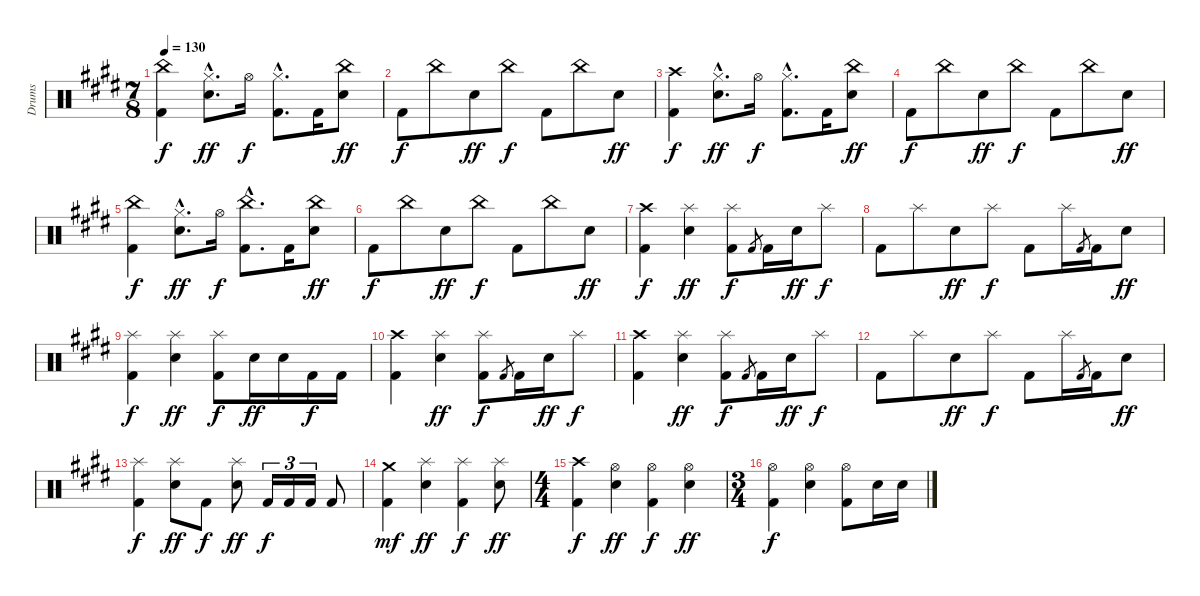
\track ("Drums" "Drums") {instrument percussion}
\staff {score}
\articulation defaults
\ts (7 8)
\tempo 130
\clef neutral
\ks e
("Kick (hit) 2" "China (hit)").4{dy f} ("Electric Snare (hit)"{hac} "Hi-Hat (closed)"{hac}).8{d dy ff} "Hi-Hat (open)".16{dy f} ("Kick (hit) 2"{hac} "Hi-Hat (closed)").8{d} "Kick (hit) 2".16 ("Electric Snare (hit)" "China (hit)").8{dy ff} |
"Kick (hit) 2".8{dy f} "China (hit)".8 "Electric Snare (hit)".8{dy ff} "China (hit)".8{dy f} "Kick (hit) 2".8 "China (hit)".8 "Electric Snare (hit)".8{dy ff} |
("Kick (hit) 2" "Crash high (hit)").4{dy f} ("Electric Snare (hit)"{hac} "Hi-Hat (closed)"{hac}).8{d dy ff} "Hi-Hat (open)".16{dy f} ("Kick (hit) 2"{hac} "Hi-Hat (closed)").8{d} "Kick (hit) 2".16 ("Electric Snare (hit)" "China (hit)").8{dy ff} |
"Kick (hit) 2".8{dy f} "China (hit)".8 "Electric Snare (hit)".8{dy ff} "China (hit)".8{dy f} "Kick (hit) 2".8 "China (hit)".8 "Electric Snare (hit)".8{dy ff} |
("Kick (hit) 2" "China (hit)").4{dy f} ("Electric Snare (hit)"{hac} "Hi-Hat (closed)"{hac}).8{d dy ff} "Hi-Hat (open)".16{dy f} ("Kick (hit) 2"{hac} "China (hit)"{hac}).8{d} "Kick (hit) 2".16 ("Electric Snare (hit)" "China (hit)").8{dy ff} |
"Kick (hit) 2".8{dy f} "China (hit)".8 "Electric Snare (hit)".8{dy ff} "China (hit)".8{dy f} "Kick (hit) 2".8 "China (hit)".8 "Electric Snare (hit)".8{dy ff} |
("Kick (hit) 2" "Crash high (hit)").4{dy f} ("Electric Snare (hit)" "Splash (hit)").4{dy ff} ("Kick (hit) 2" "Splash (hit)").8{dy f} "Kick (hit) 2".8{gr} "Kick (hit) 2".16 "Electric Snare (hit)".16{dy ff} "Splash (hit)".8{dy f} |
"Kick (hit) 2".8 "Splash (hit)".8 "Electric Snare (hit)".8{dy ff} "Splash (hit)".8{dy f} "Kick (hit) 2".8 "Splash (hit)".16 "Kick (hit) 2".8{gr} "Kick (hit) 2".16 "Electric Snare (hit)".8{dy ff} |
("Kick (hit) 2" "Splash (hit)").4{dy f} ("Electric Snare (hit)" "Splash (hit)").4{dy ff} ("Kick (hit) 2" "Splash (hit)").8{dy f} "Electric Snare (hit)".16{dy ff} "Electric Snare (hit)".16 "Kick (hit) 2".16{dy f} "Kick (hit) 2".16 |
("Kick (hit) 2" "Crash high (hit)").4 ("Electric Snare (hit)" "Splash (hit)").4{dy ff} ("Kick (hit) 2" "Splash (hit)").8{dy f} "Kick (hit) 2".8{gr} "Kick (hit) 2".16 "Electric Snare (hit)".16{dy ff} "Splash (hit)".8{dy f} |
("Kick (hit) 2" "Crash high (hit)").4 ("Electric Snare (hit)" "Splash (hit)").4{dy ff} ("Kick (hit) 2" "Splash (hit)").8{dy f} "Kick (hit) 2".8{gr} "Kick (hit) 2".16 "Electric Snare (hit)".16{dy ff} "Splash (hit)".8{dy f} |
"Kick (hit) 2".8 "Splash (hit)".8 "Electric Snare (hit)".8{dy ff} "Splash (hit)".8{dy f} "Kick (hit) 2".8 "Splash (hit)".16 "Kick (hit) 2".8{gr} "Kick (hit) 2".16 "Electric Snare (hit)".8{dy ff} |
("Kick (hit) 2" "Splash (hit)").4{dy f} ("Electric Snare (hit)" "Splash (hit)").8{dy ff} "Kick (hit) 2".8{dy f} ("Electric Snare (hit)" "Splash (hit)").8{dy ff} "Kick (hit) 2".16{tu (3 2) dy f} "Kick (hit) 2".16{tu (3 2)} "Kick (hit) 2".16{tu (3 2)} "Kick (hit) 2".8 |
("Kick (hit) 2" "Crash medium (hit)").4{dy mf} ("Electric Snare (hit)" "Splash (hit)").4{dy ff} ("Kick (hit) 2" "Splash (hit)").4{dy f} ("Electric Snare (hit)" "Splash (hit)").8{dy ff} |
\ts (4 4)
("Kick (hit) 2" "Crash high (hit)").4{dy f} ("Electric Snare (hit)" "Hi-Hat (open)").4{dy ff} ("Kick (hit) 2" "Hi-Hat (open)").4{dy f} ("Electric Snare (hit)" "Hi-Hat (open)").4{dy ff} |
\ts (3 4)
("Kick (hit) 2" "Hi-Hat (open)").4{dy f} ("Electric Snare (hit)" "Hi-Hat (open)").4 ("Kick (hit) 2" "Hi-Hat (open)").8 "Electric Snare (hit)".16 "Electric Snare (hit)".16
